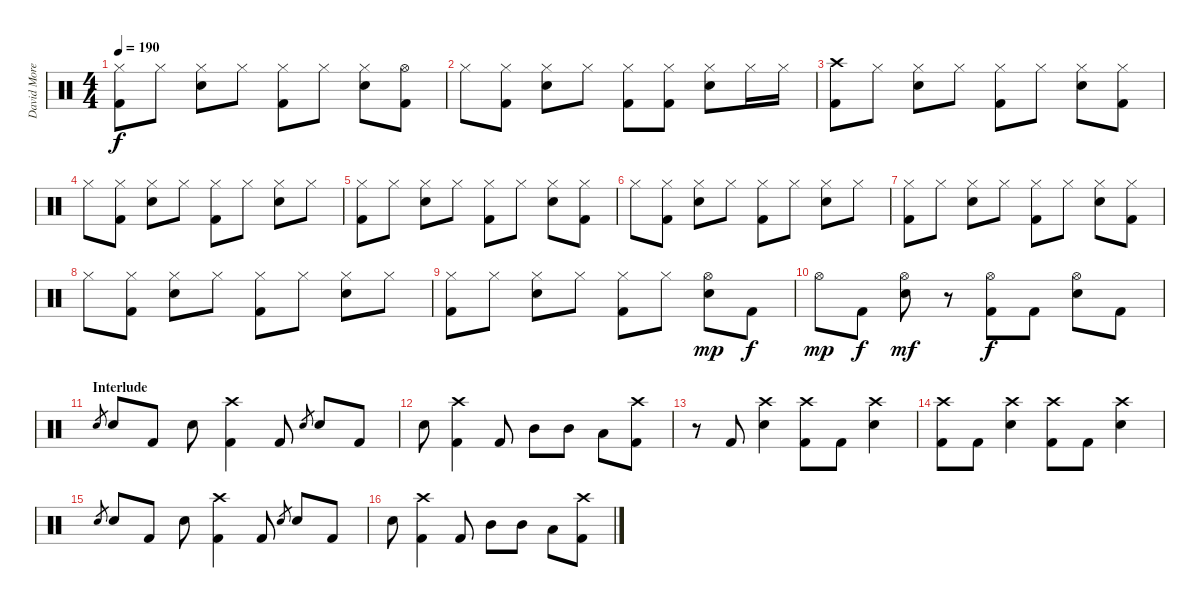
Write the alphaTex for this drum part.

\track ("David Moreno" "David More") {instrument percussion}
\staff {score}
\articulation defaults
\ts (4 4)
\tempo 190
\clef neutral
\ks c
("Hi-Hat (closed)" "Kick (hit) 2").8{dy f} "Hi-Hat (closed)".8 ("Hi-Hat (closed)" "Snare (hit) 2").8 "Hi-Hat (closed)".8 ("Hi-Hat (closed)" "Kick (hit) 2").8 "Hi-Hat (closed)".8 ("Hi-Hat (closed)" "Snare (hit) 2").8 ("Hi-Hat (open)" "Kick (hit) 2").8 |
"Hi-Hat (closed)".8 ("Hi-Hat (closed)" "Kick (hit) 2").8 ("Hi-Hat (closed)" "Snare (hit) 2").8 "Hi-Hat (closed)".8 ("Hi-Hat (closed)" "Kick (hit) 2").8 ("Hi-Hat (closed)" "Kick (hit) 2").8 ("Hi-Hat (closed)" "Snare (hit) 2").8 "Hi-Hat (closed)".16 "Hi-Hat (closed)".16 |
("Crash high (hit)" "Kick (hit) 2").8 "Hi-Hat (closed)".8 ("Hi-Hat (closed)" "Snare (hit) 2").8 "Hi-Hat (closed)".8 ("Hi-Hat (closed)" "Kick (hit) 2").8 "Hi-Hat (closed)".8 ("Hi-Hat (closed)" "Snare (hit) 2").8 ("Hi-Hat (closed)" "Kick (hit) 2").8 |
"Hi-Hat (closed)".8 ("Hi-Hat (closed)" "Kick (hit) 2").8 ("Hi-Hat (closed)" "Snare (hit) 2").8 "Hi-Hat (closed)".8 ("Hi-Hat (closed)" "Kick (hit) 2").8 "Hi-Hat (closed)".8 ("Hi-Hat (closed)" "Snare (hit) 2").8 "Hi-Hat (closed)".8 |
("Hi-Hat (closed)" "Kick (hit) 2").8 "Hi-Hat (closed)".8 ("Hi-Hat (closed)" "Snare (hit) 2").8 "Hi-Hat (closed)".8 ("Hi-Hat (closed)" "Kick (hit) 2").8 "Hi-Hat (closed)".8 ("Hi-Hat (closed)" "Snare (hit) 2").8 ("Hi-Hat (closed)" "Kick (hit) 2").8 |
"Hi-Hat (closed)".8 ("Hi-Hat (closed)" "Kick (hit) 2").8 ("Hi-Hat (closed)" "Snare (hit) 2").8 "Hi-Hat (closed)".8 ("Hi-Hat (closed)" "Kick (hit) 2").8 "Hi-Hat (closed)".8 ("Hi-Hat (closed)" "Snare (hit) 2").8 "Hi-Hat (closed)".8 |
("Hi-Hat (closed)" "Kick (hit) 2").8 "Hi-Hat (closed)".8 ("Hi-Hat (closed)" "Snare (hit) 2").8 "Hi-Hat (closed)".8 ("Hi-Hat (closed)" "Kick (hit) 2").8 "Hi-Hat (closed)".8 ("Hi-Hat (closed)" "Snare (hit) 2").8 ("Hi-Hat (closed)" "Kick (hit) 2").8 |
"Hi-Hat (closed)".8 ("Hi-Hat (closed)" "Kick (hit) 2").8 ("Hi-Hat (closed)" "Snare (hit) 2").8 "Hi-Hat (closed)".8 ("Hi-Hat (closed)" "Kick (hit) 2").8 "Hi-Hat (closed)".8 ("Hi-Hat (closed)" "Snare (hit) 2").8 "Hi-Hat (closed)".8 |
("Hi-Hat (closed)" "Kick (hit) 2").8 "Hi-Hat (closed)".8 ("Hi-Hat (closed)" "Snare (hit) 2").8 "Hi-Hat (closed)".8 ("Hi-Hat (closed)" "Kick (hit) 2").8 "Hi-Hat (closed)".8 ("Hi-Hat (open)" "Snare (hit) 2").8{dy mp} "Kick (hit) 2".8{dy f} |
"Hi-Hat (open)".8{dy mp} "Kick (hit) 2".8{dy f} ("Hi-Hat (open)" "Snare (hit) 2").8{dy mf} r.8 ("Hi-Hat (open)" "Kick (hit) 2").8{dy f} "Kick (hit) 2".8 ("Hi-Hat (open)" "Snare (hit) 2").8 "Kick (hit) 2".8 |
\section ("" "Interlude")
"Snare (hit) 2".8{gr} "Snare (hit) 2".8 "Kick (hit) 2".8 "Snare (hit) 2".8 ("Crash high (hit)" "Kick (hit) 2").4 "Kick (hit) 2".8 "Snare (hit) 2".8{gr} "Snare (hit) 2".8 "Kick (hit) 2".8 |
"Snare (hit) 2".8 ("Crash high (hit)" "Kick (hit) 2").4 "Kick (hit) 2".8 "Mid Tom (hit)".8 "Mid Tom (hit)".8 "Low Tom (hit)".8 ("Crash high (hit)" "Kick (hit) 2").8 |
r.8 "Kick (hit) 2".8 ("Crash high (hit)" "Snare (hit) 2").4 ("Crash high (hit)" "Kick (hit) 2").8 "Kick (hit) 2".8 ("Crash high (hit)" "Snare (hit) 2").4 |
("Crash high (hit)" "Kick (hit) 2").8 "Kick (hit) 2".8 ("Crash high (hit)" "Snare (hit) 2").4 ("Crash high (hit)" "Kick (hit) 2").8 "Kick (hit) 2".8 ("Crash high (hit)" "Snare (hit) 2").4 |
"Snare (hit) 2".8{gr} "Snare (hit) 2".8 "Kick (hit) 2".8 "Snare (hit) 2".8 ("Crash high (hit)" "Kick (hit) 2").4 "Kick (hit) 2".8 "Snare (hit) 2".8{gr} "Snare (hit) 2".8 "Kick (hit) 2".8 |
"Snare (hit) 2".8 ("Crash high (hit)" "Kick (hit) 2").4 "Kick (hit) 2".8 "Mid Tom (hit)".8 "Mid Tom (hit)".8 "Low Tom (hit)".8 ("Crash high (hit)" "Kick (hit) 2").8
